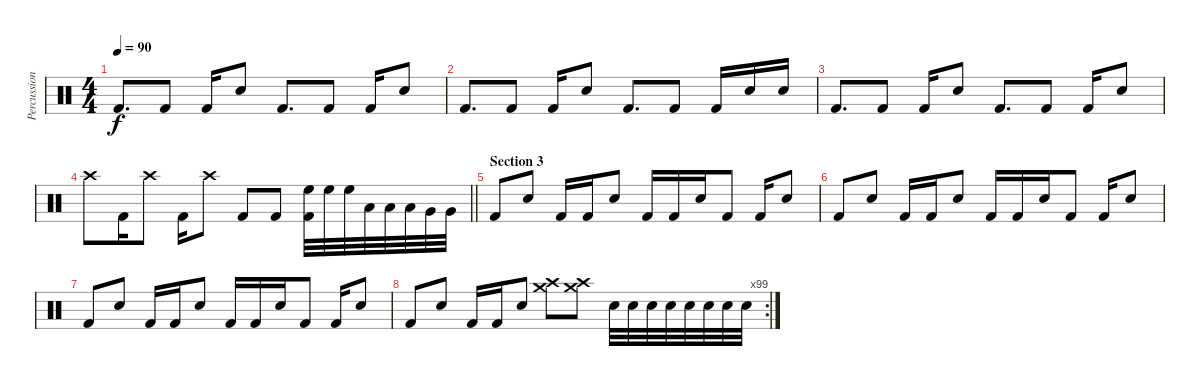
\track ("Percussion" "Percussion") {instrument percussion}
\staff {score}
\articulation defaults
\ts (4 4)
\tempo 90
\clef neutral
\ks c "Kick (hit) 2".8{d dy f} "Kick (hit) 2".8 "Kick (hit) 2".16 "Snare (hit) 2".8 "Kick (hit) 2".8{d} "Kick (hit) 2".8 "Kick (hit) 2".16 "Snare (hit) 2".8
|
"Kick (hit) 2".8{d} "Kick (hit) 2".8 "Kick (hit) 2".16 "Snare (hit) 2".8 "Kick (hit) 2".8{d} "Kick (hit) 2".8 "Kick (hit) 2".16 "Snare (hit) 2".16 "Snare (hit) 2".16 |
"Kick (hit) 2".8{d} "Kick (hit) 2".8 "Kick (hit) 2".16 "Snare (hit) 2".8 "Kick (hit) 2".8{d} "Kick (hit) 2".8 "Kick (hit) 2".16 "Snare (hit) 2".8 |
\barLineRight lightlight "Crash high (hit)".8 "Kick (hit) 2".16 "Crash high (hit)".8 "Kick (hit) 2".16 "Crash high (hit)".8 "Kick (hit) 2".8 "Kick (hit) 2".8
("Kick (hit) 2" "High Floor Tom (hit)").32 "High Floor Tom (hit)".32 "High Floor Tom (hit)".32 "Low Tom (hit)".32 "Low Tom (hit)".32 "Low Tom (hit)".32 "Very Low Tom (hit)".32 "Very Low Tom (hit)".32 |
\section ("" "Section 3")
"Kick (hit) 2".8 "Snare (hit) 2".8 "Kick (hit) 2".16 "Kick (hit) 2".16 "Snare (hit) 2".8 "Kick (hit) 2".16 "Kick (hit) 2".16 "Snare (hit) 2".16 "Kick (hit) 2".8 "Kick (hit) 2".16 "Snare (hit) 2".8 |
"Kick (hit) 2".8 "Snare (hit) 2".8 "Kick (hit) 2".16 "Kick (hit) 2".16 "Snare (hit) 2".8 "Kick (hit) 2".16 "Kick (hit) 2".16 "Snare (hit) 2".16 "Kick (hit) 2".8 "Kick (hit) 2".16 "Snare (hit) 2".8 |
"Kick (hit) 2".8 "Snare (hit) 2".8 "Kick (hit) 2".16 "Kick (hit) 2".16 "Snare (hit) 2".8 "Kick (hit) 2".16 "Kick (hit) 2".16 "Snare (hit) 2".16 "Kick (hit) 2".8 "Kick (hit) 2".16 "Snare (hit) 2".8 |
\rc 99 "Kick (hit) 2".8 "Snare (hit) 2".8 "Kick (hit) 2".16 "Kick (hit) 2".16 "Snare (hit) 2".8
("Crash medium (hit)" "Crash high (hit)").8 ("Crash medium (hit)" "Crash high (hit)").8 "Snare (hit) 2".32 "Snare (hit) 2".32 "Snare (hit) 2".32 "Snare (hit) 2".32 "Snare (hit) 2".32 "Snare (hit) 2".32 "Snare (hit) 2".32 "Snare (hit) 2".32
